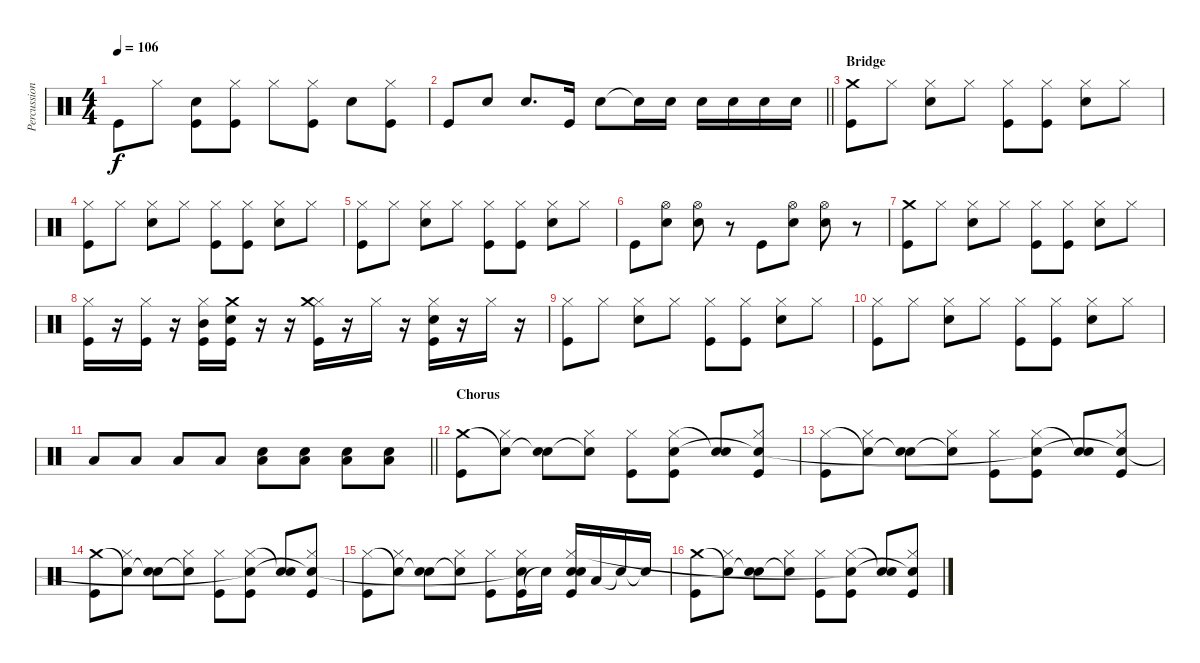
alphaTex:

\track ("Percussion" "Percussion") {instrument percussion}
\staff {score}
\articulation defaults
\ts (4 4)
\tempo 106
\clef neutral
\ks c "Kick (hit)".8{dy f} "Hi-Hat (closed)".8
("Kick (hit)" "Electric Snare (hit)").8 ("Kick (hit)" "Hi-Hat (closed)").8 "Hi-Hat (closed)".8 ("Kick (hit)" "Hi-Hat (closed)").8 "Electric Snare (hit)".8 ("Kick (hit)" "Hi-Hat (closed)").8 |
\barLineRight lightlight "Kick (hit)".8 "Electric Snare (hit)".8 "Electric Snare (hit)".8{d} "Kick (hit)".16 "Electric Snare (hit)".8 "Electric Snare (hit)"{t}.16 "Electric Snare (hit)".16 "Electric Snare (hit)".16 "Electric Snare (hit)".16 "Electric Snare (hit)".16 "Electric Snare (hit)".16
|
\section ("" "Bridge")
("Kick (hit)" "Crash medium (hit)").8 "Hi-Hat (closed)".8 ("Electric Snare (hit)" "Hi-Hat (closed)").8 "Hi-Hat (closed)".8 ("Kick (hit)" "Hi-Hat (closed)").8 ("Kick (hit)" "Hi-Hat (closed)").8 ("Electric Snare (hit)" "Hi-Hat (closed)").8 "Hi-Hat (closed)".8 |
("Kick (hit)" "Hi-Hat (closed)").8 "Hi-Hat (closed)".8 ("Electric Snare (hit)" "Hi-Hat (closed)").8 "Hi-Hat (closed)".8 ("Kick (hit)" "Hi-Hat (closed)").8 ("Kick (hit)" "Hi-Hat (closed)").8 ("Electric Snare (hit)" "Hi-Hat (closed)").8 "Hi-Hat (closed)".8 |
("Kick (hit)" "Hi-Hat (closed)").8 "Hi-Hat (closed)".8 ("Electric Snare (hit)" "Hi-Hat (closed)").8 "Hi-Hat (closed)".8 ("Kick (hit)" "Hi-Hat (closed)").8 ("Kick (hit)" "Hi-Hat (closed)").8 ("Electric Snare (hit)" "Hi-Hat (closed)").8 "Hi-Hat (closed)".8 |
"Kick (hit)".8 ("Electric Snare (hit)" "Hi-Hat (open)").8 ("Electric Snare (hit)" "Hi-Hat (open)").8 r.8 "Kick (hit)".8 ("Electric Snare (hit)" "Hi-Hat (open)").8 ("Electric Snare (hit)" "Hi-Hat (open)").8 r.8 |
("Kick (hit)" "Crash medium (hit)").8 "Hi-Hat (closed)".8 ("Electric Snare (hit)" "Hi-Hat (closed)").8 "Hi-Hat (closed)".8 ("Kick (hit)" "Hi-Hat (closed)").8 ("Kick (hit)" "Hi-Hat (closed)").8 ("Electric Snare (hit)" "Hi-Hat (closed)").8 "Hi-Hat (closed)".8 |
("Kick (hit)" "Hi-Hat (closed)").16 r.16 ("Kick (hit)" "Hi-Hat (closed)").16 r.16 ("Kick (hit)" "Mid Tom (hit)" "Hi-Hat (closed)").16 ("Kick (hit)" "Electric Snare (hit)" "Crash medium (hit)").16 r.16 r.16 ("Kick (hit)" "Hi-Hat (closed)" "Crash medium (hit)").16 r.16 "Hi-Hat (closed)".16 r.16 ("Kick (hit)" "Electric Snare (hit)" "Hi-Hat (closed)").16 r.16 "Hi-Hat (closed)".16 r.16 |
("Kick (hit)" "Hi-Hat (closed)").8 "Hi-Hat (closed)".8 ("Electric Snare (hit)" "Hi-Hat (closed)").8 "Hi-Hat (closed)".8 ("Kick (hit)" "Hi-Hat (closed)").8 ("Kick (hit)" "Hi-Hat (closed)").8 ("Electric Snare (hit)" "Hi-Hat (closed)").8 "Hi-Hat (closed)".8 |
("Kick (hit)" "Hi-Hat (closed)").8 "Hi-Hat (closed)".8 ("Electric Snare (hit)" "Hi-Hat (closed)").8 "Hi-Hat (closed)".8 ("Kick (hit)" "Hi-Hat (closed)").8 ("Kick (hit)" "Hi-Hat (closed)").8 ("Electric Snare (hit)" "Hi-Hat (closed)").8 "Hi-Hat (closed)".8 |
\barLineRight lightlight "Low Tom (hit)".8 "Low Tom (hit)".8 "Low Tom (hit)".8 "Low Tom (hit)".8
("Electric Snare (hit)" "Low Tom (hit)").8 ("Electric Snare (hit)" "Low Tom (hit)").8 ("Electric Snare (hit)" "Low Tom (hit)").8 ("Electric Snare (hit)" "Low Tom (hit)").8 |
\section ("" "Chorus")
("Kick (hit)" "Crash medium (hit)").8 ("Hi-Hat (closed)" "Snare (hit)"{t}).8 ("Electric Snare (hit)" "Snare (hit)"{t}).8 ("Hi-Hat (closed)" "Snare (hit)"{t}).8 ("Kick (hit)" "Hi-Hat (closed)").8 ("Kick (hit)" "Hi-Hat (closed)" "Snare (hit)").8 ("Electric Snare (hit)" "Snare (hit)"{t}).8 ("Kick (hit)" "Hi-Hat (closed)" "Snare (hit)"{t}).8 |
("Kick (hit)" "Hi-Hat (closed)").8 ("Hi-Hat (closed)" "Snare (hit)"{t}).8 ("Electric Snare (hit)" "Snare (hit)"{t}).8 ("Hi-Hat (closed)" "Snare (hit)"{t}).8 ("Kick (hit)" "Hi-Hat (closed)").8 ("Kick (hit)" "Hi-Hat (closed)" "Snare (hit)"{t}).8 ("Electric Snare (hit)" "Snare (hit)"{t}).8 ("Kick (hit)" "Hi-Hat (closed)" "Snare (hit)"{t}).8 |
("Kick (hit)" "Crash medium (hit)").8 ("Hi-Hat (closed)" "Snare (hit)"{t}).8 ("Electric Snare (hit)" "Snare (hit)"{t}).8 ("Hi-Hat (closed)" "Snare (hit)"{t}).8 ("Kick (hit)" "Hi-Hat (closed)").8 ("Kick (hit)" "Hi-Hat (closed)" "Snare (hit)"{t}).8 ("Electric Snare (hit)" "Snare (hit)"{t}).8 ("Kick (hit)" "Hi-Hat (closed)" "Snare (hit)"{t}).8 |
("Kick (hit)" "Hi-Hat (closed)").8 ("Hi-Hat (closed)" "Snare (hit)"{t}).8 ("Electric Snare (hit)" "Snare (hit)"{t}).8 ("Hi-Hat (closed)" "Snare (hit)"{t}).8 ("Kick (hit)" "Hi-Hat (closed)").8 ("Kick (hit)" "Hi-Hat (closed)" "Snare (hit)"{t}).16 "Snare (hit)"{t}.16 ("Kick (hit)" "Electric Snare (hit)" "Hi-Hat (closed)" "Snare (hit)").16 "Low Tom (hit)".16 "Snare (hit)"{t}.16 "Snare (hit)"{t}.16 |
("Kick (hit)" "Crash medium (hit)").8 ("Hi-Hat (closed)" "Snare (hit)"{t}).8 ("Electric Snare (hit)" "Snare (hit)"{t}).8 ("Hi-Hat (closed)" "Snare (hit)"{t}).8 ("Kick (hit)" "Hi-Hat (closed)").8 ("Kick (hit)" "Hi-Hat (closed)" "Snare (hit)"{t}).8 ("Electric Snare (hit)" "Snare (hit)"{t}).8 ("Kick (hit)" "Hi-Hat (closed)" "Snare (hit)"{t}).8
